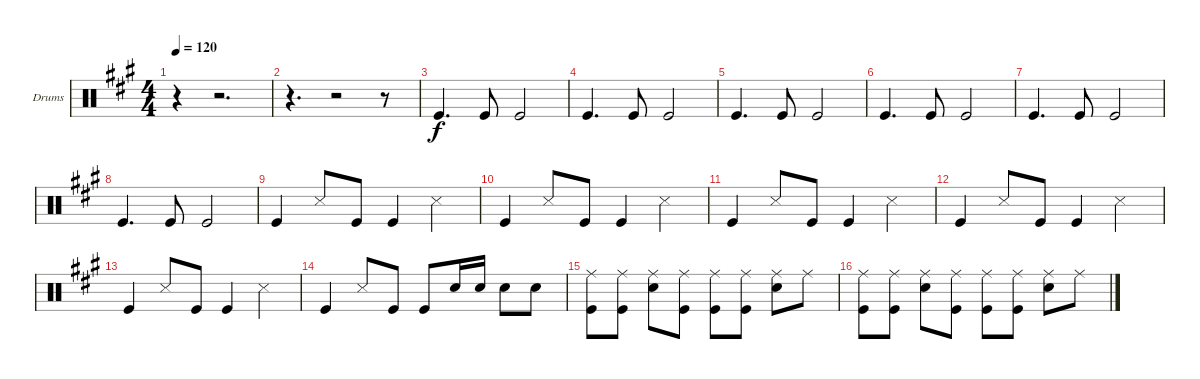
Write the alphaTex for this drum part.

\bracketExtendMode groupsimilarinstruments
\firstSystemTrackNameOrientation horizontal
\otherSystemsTrackNameOrientation horizontal
\track ("Drums Ringo" "Drums") {instrument percussion}
\staff {score}
\articulation defaults
\ts (4 4)
\tempo 120
\clef neutral
\ks a
r.4{dy f} r.2{d} |
r.4{d} r.2 r.8 |
"Kick (hit)".4{d} "Kick (hit)".8 "Kick (hit)".2 |
"Kick (hit)".4{d} "Kick (hit)".8 "Kick (hit)".2 |
"Kick (hit)".4{d} "Kick (hit)".8 "Kick (hit)".2 |
"Kick (hit)".4{d} "Kick (hit)".8 "Kick (hit)".2 |
"Kick (hit)".4{d} "Kick (hit)".8 "Kick (hit)".2 |
"Kick (hit)".4{d} "Kick (hit)".8 "Kick (hit)".2 |
"Kick (hit)".4 "Snare (side stick) 3".8 "Kick (hit)".8 "Kick (hit)".4 "Snare (side stick) 3".4 |
"Kick (hit)".4 "Snare (side stick) 3".8 "Kick (hit)".8 "Kick (hit)".4 "Snare (side stick) 3".4 |
"Kick (hit)".4 "Snare (side stick) 3".8 "Kick (hit)".8 "Kick (hit)".4 "Snare (side stick) 3".4 |
"Kick (hit)".4 "Snare (side stick) 3".8 "Kick (hit)".8 "Kick (hit)".4 "Snare (side stick) 3".4 |
"Kick (hit)".4 "Snare (side stick) 3".8 "Kick (hit)".8 "Kick (hit)".4 "Snare (side stick) 3".4 |
"Kick (hit)".4 "Snare (side stick) 3".8 "Kick (hit)".8 "Kick (hit)".8 "Snare (hit) 2".16 "Snare (hit) 2".16 "Snare (hit) 2".8 "Snare (hit) 2".8 |
("Ride (middle)" "Kick (hit)").8 ("Ride (middle)" "Kick (hit)").8 ("Ride (middle)" "Snare (hit) 2").8 ("Ride (middle)" "Kick (hit)").8 ("Ride (middle)" "Kick (hit)").8 ("Ride (middle)" "Kick (hit)").8 ("Ride (middle)" "Snare (hit) 2").8 "Ride (middle)".8 |
("Ride (middle)" "Kick (hit)").8 ("Ride (middle)" "Kick (hit)").8 ("Ride (middle)" "Snare (hit) 2").8 ("Ride (middle)" "Kick (hit)").8 ("Ride (middle)" "Kick (hit)").8 ("Ride (middle)" "Kick (hit)").8 ("Ride (middle)" "Snare (hit) 2").8 "Ride (middle)".8
